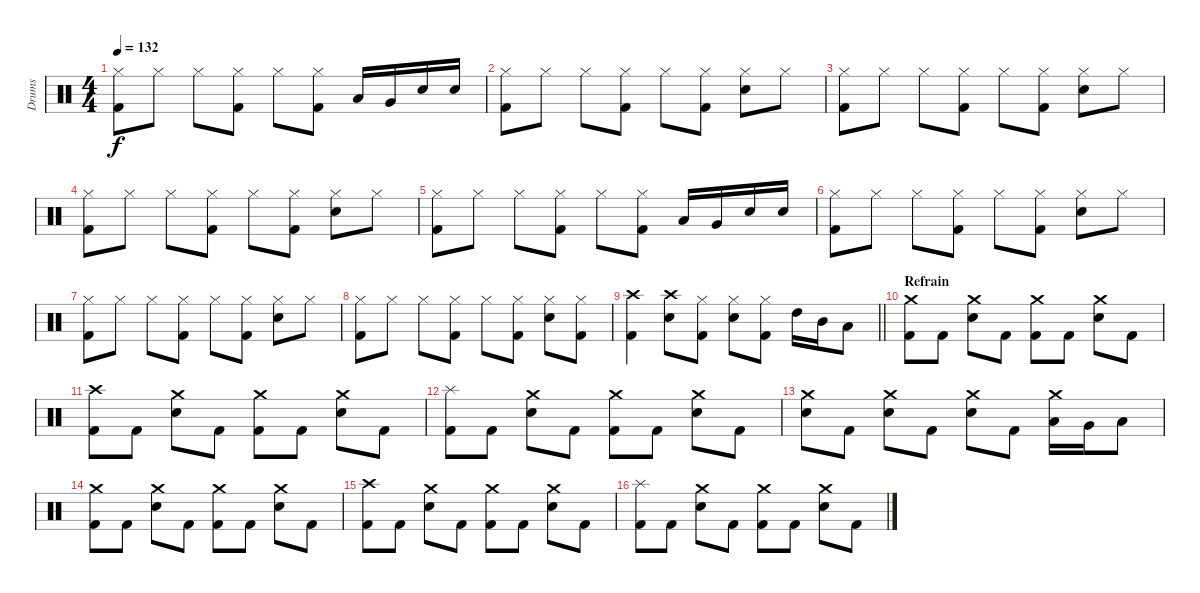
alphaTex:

\track ("Drums" "Drums") {instrument percussion}
\staff {score}
\articulation defaults
\ts (4 4)
\tempo 132
\clef neutral
\ks c
("Kick (hit) 2" "Hi-Hat (closed)").8{dy f} "Hi-Hat (closed)".8 "Hi-Hat (closed)".8 ("Kick (hit) 2" "Hi-Hat (closed)").8 "Hi-Hat (closed)".8 ("Kick (hit) 2" "Hi-Hat (closed)").8 "Low Tom (hit)".16 "Very Low Tom (hit)".16 "Electric Snare (hit)".16 "Electric Snare (hit)".16 |
("Kick (hit) 2" "Hi-Hat (closed)").8 "Hi-Hat (closed)".8 "Hi-Hat (closed)".8 ("Kick (hit) 2" "Hi-Hat (closed)").8 "Hi-Hat (closed)".8 ("Kick (hit) 2" "Hi-Hat (closed)").8 ("Electric Snare (hit)" "Hi-Hat (closed)").8 "Hi-Hat (closed)".8 |
("Kick (hit) 2" "Hi-Hat (closed)").8 "Hi-Hat (closed)".8 "Hi-Hat (closed)".8 ("Kick (hit) 2" "Hi-Hat (closed)").8 "Hi-Hat (closed)".8 ("Kick (hit) 2" "Hi-Hat (closed)").8 ("Electric Snare (hit)" "Hi-Hat (closed)").8 "Hi-Hat (closed)".8 |
("Kick (hit) 2" "Hi-Hat (closed)").8 "Hi-Hat (closed)".8 "Hi-Hat (closed)".8 ("Kick (hit) 2" "Hi-Hat (closed)").8 "Hi-Hat (closed)".8 ("Kick (hit) 2" "Hi-Hat (closed)").8 ("Electric Snare (hit)" "Hi-Hat (closed)").8 "Hi-Hat (closed)".8 |
("Kick (hit) 2" "Hi-Hat (closed)").8 "Hi-Hat (closed)".8 "Hi-Hat (closed)".8 ("Kick (hit) 2" "Hi-Hat (closed)").8 "Hi-Hat (closed)".8 ("Kick (hit) 2" "Hi-Hat (closed)").8 "Low Tom (hit)".16 "Very Low Tom (hit)".16 "Electric Snare (hit)".16 "Electric Snare (hit)".16 |
("Kick (hit) 2" "Hi-Hat (closed)").8 "Hi-Hat (closed)".8 "Hi-Hat (closed)".8 ("Kick (hit) 2" "Hi-Hat (closed)").8 "Hi-Hat (closed)".8 ("Kick (hit) 2" "Hi-Hat (closed)").8 ("Electric Snare (hit)" "Hi-Hat (closed)").8 "Hi-Hat (closed)".8 |
("Kick (hit) 2" "Hi-Hat (closed)").8 "Hi-Hat (closed)".8 "Hi-Hat (closed)".8 ("Kick (hit) 2" "Hi-Hat (closed)").8 "Hi-Hat (closed)".8 ("Kick (hit) 2" "Hi-Hat (closed)").8 ("Electric Snare (hit)" "Hi-Hat (closed)").8 "Hi-Hat (closed)".8 |
("Kick (hit) 2" "Hi-Hat (closed)").8 "Hi-Hat (closed)".8 "Hi-Hat (closed)".8 ("Kick (hit) 2" "Hi-Hat (closed)").8 "Hi-Hat (closed)".8 ("Kick (hit) 2" "Hi-Hat (closed)").8 ("Electric Snare (hit)" "Hi-Hat (closed)").8 ("Kick (hit) 2" "Hi-Hat (closed)").8 |
\barLineRight lightlight
("Kick (hit) 2" "Crash high (hit)").4 ("Electric Snare (hit)" "Crash high (hit)").8 ("Kick (hit) 2" "Hi-Hat (closed)").8 ("Electric Snare (hit)" "Hi-Hat (closed)").8 ("Kick (hit) 2" "Hi-Hat (closed)").8 "High Tom (hit)".16 "Mid Tom (hit)".16 "Low Tom (hit)".8 |
\section ("" "Refrain")
("Kick (hit) 2" "Crash medium (hit)").8 "Kick (hit) 2".8 ("Electric Snare (hit)" "Crash medium (hit)").8 "Kick (hit) 2".8 ("Kick (hit) 2" "Crash medium (hit)").8 "Kick (hit) 2".8 ("Electric Snare (hit)" "Crash medium (hit)").8 "Kick (hit) 2".8 |
("Kick (hit) 2" "Crash high (hit)").8 "Kick (hit) 2".8 ("Electric Snare (hit)" "Crash medium (hit)").8 "Kick (hit) 2".8 ("Kick (hit) 2" "Crash medium (hit)").8 "Kick (hit) 2".8 ("Electric Snare (hit)" "Crash medium (hit)").8 "Kick (hit) 2".8 |
("Kick (hit) 2" "Splash (hit)").8 "Kick (hit) 2".8 ("Electric Snare (hit)" "Crash medium (hit)").8 "Kick (hit) 2".8 ("Kick (hit) 2" "Crash medium (hit)").8 "Kick (hit) 2".8 ("Electric Snare (hit)" "Crash medium (hit)").8 "Kick (hit) 2".8 |
("Electric Snare (hit)" "Crash medium (hit)").8 "Kick (hit) 2".8 ("Electric Snare (hit)" "Crash medium (hit)").8 "Kick (hit) 2".8 ("Electric Snare (hit)" "Crash medium (hit)").8 "Kick (hit) 2".8 ("Low Tom (hit)" "Crash medium (hit)").16 "Very Low Tom (hit)".16 "Low Floor Tom (hit)".8 |
("Kick (hit) 2" "Crash medium (hit)").8 "Kick (hit) 2".8 ("Electric Snare (hit)" "Crash medium (hit)").8 "Kick (hit) 2".8 ("Kick (hit) 2" "Crash medium (hit)").8 "Kick (hit) 2".8 ("Electric Snare (hit)" "Crash medium (hit)").8 "Kick (hit) 2".8 |
("Kick (hit) 2" "Crash high (hit)").8 "Kick (hit) 2".8 ("Electric Snare (hit)" "Crash medium (hit)").8 "Kick (hit) 2".8 ("Kick (hit) 2" "Crash medium (hit)").8 "Kick (hit) 2".8 ("Electric Snare (hit)" "Crash medium (hit)").8 "Kick (hit) 2".8 |
("Kick (hit) 2" "Splash (hit)").8 "Kick (hit) 2".8 ("Electric Snare (hit)" "Crash medium (hit)").8 "Kick (hit) 2".8 ("Kick (hit) 2" "Crash medium (hit)").8 "Kick (hit) 2".8 ("Electric Snare (hit)" "Crash medium (hit)").8 "Kick (hit) 2".8
